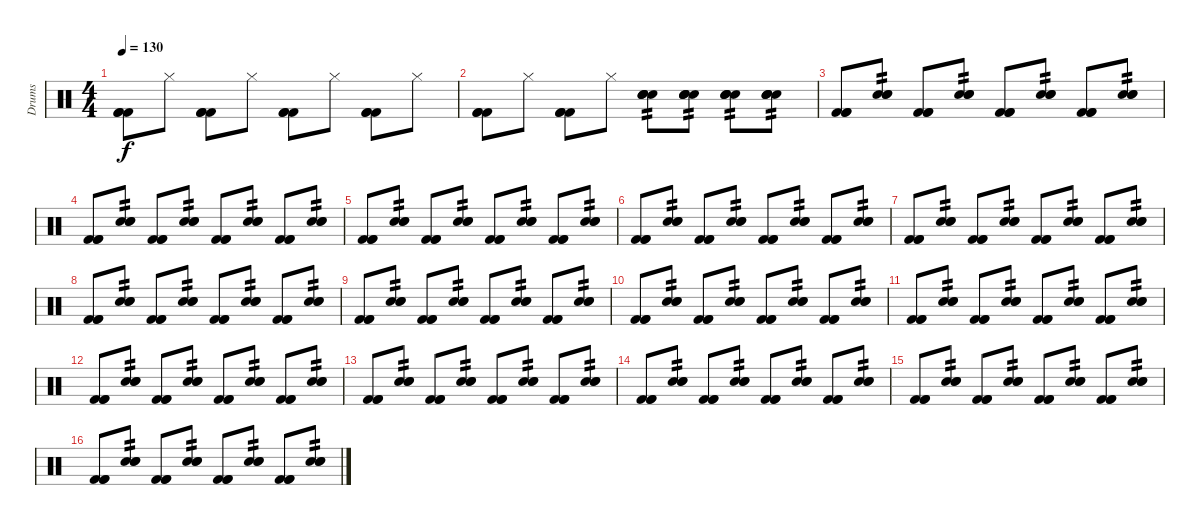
\track ("Drums" "Drums") {instrument percussion}
\staff {score}
\articulation defaults
\ts (4 4)
\tempo 130
\clef neutral
\ks c
("Kick (hit) 2" "Kick (hit) 2" "Kick (hit) 2").8{dy f} "Hi-Hat (closed)".8 ("Kick (hit) 2" "Kick (hit) 2" "Kick (hit) 2").8 "Hi-Hat (closed)".8 ("Kick (hit) 2" "Kick (hit) 2" "Kick (hit) 2").8 "Hi-Hat (closed)".8 ("Kick (hit) 2" "Kick (hit) 2" "Kick (hit) 2").8 "Hi-Hat (closed)".8 |
("Kick (hit) 2" "Kick (hit) 2" "Kick (hit) 2").8 "Hi-Hat (closed)".8 ("Kick (hit) 2" "Kick (hit) 2" "Kick (hit) 2").8 "Hi-Hat (closed)".8 ("Electric Snare (hit)" "Electric Snare (hit)" "Electric Snare (hit)" "Electric Snare (hit)").8{tp 2} ("Electric Snare (hit)" "Electric Snare (hit)" "Electric Snare (hit)" "Electric Snare (hit)").8{tp 2} ("Electric Snare (hit)" "Electric Snare (hit)" "Electric Snare (hit)" "Electric Snare (hit)").8{tp 2} ("Electric Snare (hit)" "Electric Snare (hit)" "Electric Snare (hit)" "Electric Snare (hit)").8{tp 2} |
("Kick (hit) 2" "Kick (hit) 2" "Kick (hit) 2").8 ("Electric Snare (hit)" "Electric Snare (hit)" "Electric Snare (hit)").8{tp 2} ("Kick (hit) 2" "Kick (hit) 2" "Kick (hit) 2").8 ("Electric Snare (hit)" "Electric Snare (hit)" "Electric Snare (hit)").8{tp 2} ("Kick (hit) 2" "Kick (hit) 2" "Kick (hit) 2").8 ("Electric Snare (hit)" "Electric Snare (hit)" "Electric Snare (hit)").8{tp 2} ("Kick (hit) 2" "Kick (hit) 2" "Kick (hit) 2").8 ("Electric Snare (hit)" "Electric Snare (hit)" "Electric Snare (hit)").8{tp 2} |
("Kick (hit) 2" "Kick (hit) 2" "Kick (hit) 2").8 ("Electric Snare (hit)" "Electric Snare (hit)" "Electric Snare (hit)").8{tp 2} ("Kick (hit) 2" "Kick (hit) 2" "Kick (hit) 2").8 ("Electric Snare (hit)" "Electric Snare (hit)" "Electric Snare (hit)").8{tp 2} ("Kick (hit) 2" "Kick (hit) 2" "Kick (hit) 2").8 ("Electric Snare (hit)" "Electric Snare (hit)" "Electric Snare (hit)").8{tp 2} ("Kick (hit) 2" "Kick (hit) 2" "Kick (hit) 2").8 ("Electric Snare (hit)" "Electric Snare (hit)" "Electric Snare (hit)").8{tp 2} |
("Kick (hit) 2" "Kick (hit) 2" "Kick (hit) 2").8 ("Electric Snare (hit)" "Electric Snare (hit)" "Electric Snare (hit)").8{tp 2} ("Kick (hit) 2" "Kick (hit) 2" "Kick (hit) 2").8 ("Electric Snare (hit)" "Electric Snare (hit)" "Electric Snare (hit)").8{tp 2} ("Kick (hit) 2" "Kick (hit) 2" "Kick (hit) 2").8 ("Electric Snare (hit)" "Electric Snare (hit)" "Electric Snare (hit)").8{tp 2} ("Kick (hit) 2" "Kick (hit) 2" "Kick (hit) 2").8 ("Electric Snare (hit)" "Electric Snare (hit)" "Electric Snare (hit)").8{tp 2} |
("Kick (hit) 2" "Kick (hit) 2" "Kick (hit) 2").8 ("Electric Snare (hit)" "Electric Snare (hit)" "Electric Snare (hit)").8{tp 2} ("Kick (hit) 2" "Kick (hit) 2" "Kick (hit) 2").8 ("Electric Snare (hit)" "Electric Snare (hit)" "Electric Snare (hit)").8{tp 2} ("Kick (hit) 2" "Kick (hit) 2" "Kick (hit) 2").8 ("Electric Snare (hit)" "Electric Snare (hit)" "Electric Snare (hit)").8{tp 2} ("Kick (hit) 2" "Kick (hit) 2" "Kick (hit) 2").8 ("Electric Snare (hit)" "Electric Snare (hit)" "Electric Snare (hit)").8{tp 2} |
("Kick (hit) 2" "Kick (hit) 2" "Kick (hit) 2").8 ("Electric Snare (hit)" "Electric Snare (hit)" "Electric Snare (hit)").8{tp 2} ("Kick (hit) 2" "Kick (hit) 2" "Kick (hit) 2").8 ("Electric Snare (hit)" "Electric Snare (hit)" "Electric Snare (hit)").8{tp 2} ("Kick (hit) 2" "Kick (hit) 2" "Kick (hit) 2").8 ("Electric Snare (hit)" "Electric Snare (hit)" "Electric Snare (hit)").8{tp 2} ("Kick (hit) 2" "Kick (hit) 2" "Kick (hit) 2").8 ("Electric Snare (hit)" "Electric Snare (hit)" "Electric Snare (hit)").8{tp 2} |
("Kick (hit) 2" "Kick (hit) 2" "Kick (hit) 2").8 ("Electric Snare (hit)" "Electric Snare (hit)" "Electric Snare (hit)").8{tp 2} ("Kick (hit) 2" "Kick (hit) 2" "Kick (hit) 2").8 ("Electric Snare (hit)" "Electric Snare (hit)" "Electric Snare (hit)").8{tp 2} ("Kick (hit) 2" "Kick (hit) 2" "Kick (hit) 2").8 ("Electric Snare (hit)" "Electric Snare (hit)" "Electric Snare (hit)").8{tp 2} ("Kick (hit) 2" "Kick (hit) 2" "Kick (hit) 2").8 ("Electric Snare (hit)" "Electric Snare (hit)" "Electric Snare (hit)").8{tp 2} |
("Kick (hit) 2" "Kick (hit) 2" "Kick (hit) 2").8 ("Electric Snare (hit)" "Electric Snare (hit)" "Electric Snare (hit)").8{tp 2} ("Kick (hit) 2" "Kick (hit) 2" "Kick (hit) 2").8 ("Electric Snare (hit)" "Electric Snare (hit)" "Electric Snare (hit)").8{tp 2} ("Kick (hit) 2" "Kick (hit) 2" "Kick (hit) 2").8 ("Electric Snare (hit)" "Electric Snare (hit)" "Electric Snare (hit)").8{tp 2} ("Kick (hit) 2" "Kick (hit) 2" "Kick (hit) 2").8 ("Electric Snare (hit)" "Electric Snare (hit)" "Electric Snare (hit)").8{tp 2} |
("Kick (hit) 2" "Kick (hit) 2" "Kick (hit) 2").8 ("Electric Snare (hit)" "Electric Snare (hit)" "Electric Snare (hit)").8{tp 2} ("Kick (hit) 2" "Kick (hit) 2" "Kick (hit) 2").8 ("Electric Snare (hit)" "Electric Snare (hit)" "Electric Snare (hit)").8{tp 2} ("Kick (hit) 2" "Kick (hit) 2" "Kick (hit) 2").8 ("Electric Snare (hit)" "Electric Snare (hit)" "Electric Snare (hit)").8{tp 2} ("Kick (hit) 2" "Kick (hit) 2" "Kick (hit) 2").8 ("Electric Snare (hit)" "Electric Snare (hit)" "Electric Snare (hit)").8{tp 2} |
("Kick (hit) 2" "Kick (hit) 2" "Kick (hit) 2").8 ("Electric Snare (hit)" "Electric Snare (hit)" "Electric Snare (hit)").8{tp 2} ("Kick (hit) 2" "Kick (hit) 2" "Kick (hit) 2").8 ("Electric Snare (hit)" "Electric Snare (hit)" "Electric Snare (hit)").8{tp 2} ("Kick (hit) 2" "Kick (hit) 2" "Kick (hit) 2").8 ("Electric Snare (hit)" "Electric Snare (hit)" "Electric Snare (hit)").8{tp 2} ("Kick (hit) 2" "Kick (hit) 2" "Kick (hit) 2").8 ("Electric Snare (hit)" "Electric Snare (hit)" "Electric Snare (hit)").8{tp 2} |
("Kick (hit) 2" "Kick (hit) 2" "Kick (hit) 2").8 ("Electric Snare (hit)" "Electric Snare (hit)" "Electric Snare (hit)").8{tp 2} ("Kick (hit) 2" "Kick (hit) 2" "Kick (hit) 2").8 ("Electric Snare (hit)" "Electric Snare (hit)" "Electric Snare (hit)").8{tp 2} ("Kick (hit) 2" "Kick (hit) 2" "Kick (hit) 2").8 ("Electric Snare (hit)" "Electric Snare (hit)" "Electric Snare (hit)").8{tp 2} ("Kick (hit) 2" "Kick (hit) 2" "Kick (hit) 2").8 ("Electric Snare (hit)" "Electric Snare (hit)" "Electric Snare (hit)").8{tp 2} |
("Kick (hit) 2" "Kick (hit) 2" "Kick (hit) 2").8 ("Electric Snare (hit)" "Electric Snare (hit)" "Electric Snare (hit)").8{tp 2} ("Kick (hit) 2" "Kick (hit) 2" "Kick (hit) 2").8 ("Electric Snare (hit)" "Electric Snare (hit)" "Electric Snare (hit)").8{tp 2} ("Kick (hit) 2" "Kick (hit) 2" "Kick (hit) 2").8 ("Electric Snare (hit)" "Electric Snare (hit)" "Electric Snare (hit)").8{tp 2} ("Kick (hit) 2" "Kick (hit) 2" "Kick (hit) 2").8 ("Electric Snare (hit)" "Electric Snare (hit)" "Electric Snare (hit)").8{tp 2} |
("Kick (hit) 2" "Kick (hit) 2" "Kick (hit) 2").8 ("Electric Snare (hit)" "Electric Snare (hit)" "Electric Snare (hit)").8{tp 2} ("Kick (hit) 2" "Kick (hit) 2" "Kick (hit) 2").8 ("Electric Snare (hit)" "Electric Snare (hit)" "Electric Snare (hit)").8{tp 2} ("Kick (hit) 2" "Kick (hit) 2" "Kick (hit) 2").8 ("Electric Snare (hit)" "Electric Snare (hit)" "Electric Snare (hit)").8{tp 2} ("Kick (hit) 2" "Kick (hit) 2" "Kick (hit) 2").8 ("Electric Snare (hit)" "Electric Snare (hit)" "Electric Snare (hit)").8{tp 2} |
("Kick (hit) 2" "Kick (hit) 2" "Kick (hit) 2").8 ("Electric Snare (hit)" "Electric Snare (hit)" "Electric Snare (hit)").8{tp 2} ("Kick (hit) 2" "Kick (hit) 2" "Kick (hit) 2").8 ("Electric Snare (hit)" "Electric Snare (hit)" "Electric Snare (hit)").8{tp 2} ("Kick (hit) 2" "Kick (hit) 2" "Kick (hit) 2").8 ("Electric Snare (hit)" "Electric Snare (hit)" "Electric Snare (hit)").8{tp 2} ("Kick (hit) 2" "Kick (hit) 2" "Kick (hit) 2").8 ("Electric Snare (hit)" "Electric Snare (hit)" "Electric Snare (hit)").8{tp 2} |
("Kick (hit) 2" "Kick (hit) 2" "Kick (hit) 2").8 ("Electric Snare (hit)" "Electric Snare (hit)" "Electric Snare (hit)").8{tp 2} ("Kick (hit) 2" "Kick (hit) 2" "Kick (hit) 2").8 ("Electric Snare (hit)" "Electric Snare (hit)" "Electric Snare (hit)").8{tp 2} ("Kick (hit) 2" "Kick (hit) 2" "Kick (hit) 2").8 ("Electric Snare (hit)" "Electric Snare (hit)" "Electric Snare (hit)").8{tp 2} ("Kick (hit) 2" "Kick (hit) 2" "Kick (hit) 2").8 ("Electric Snare (hit)" "Electric Snare (hit)" "Electric Snare (hit)").8{tp 2}
